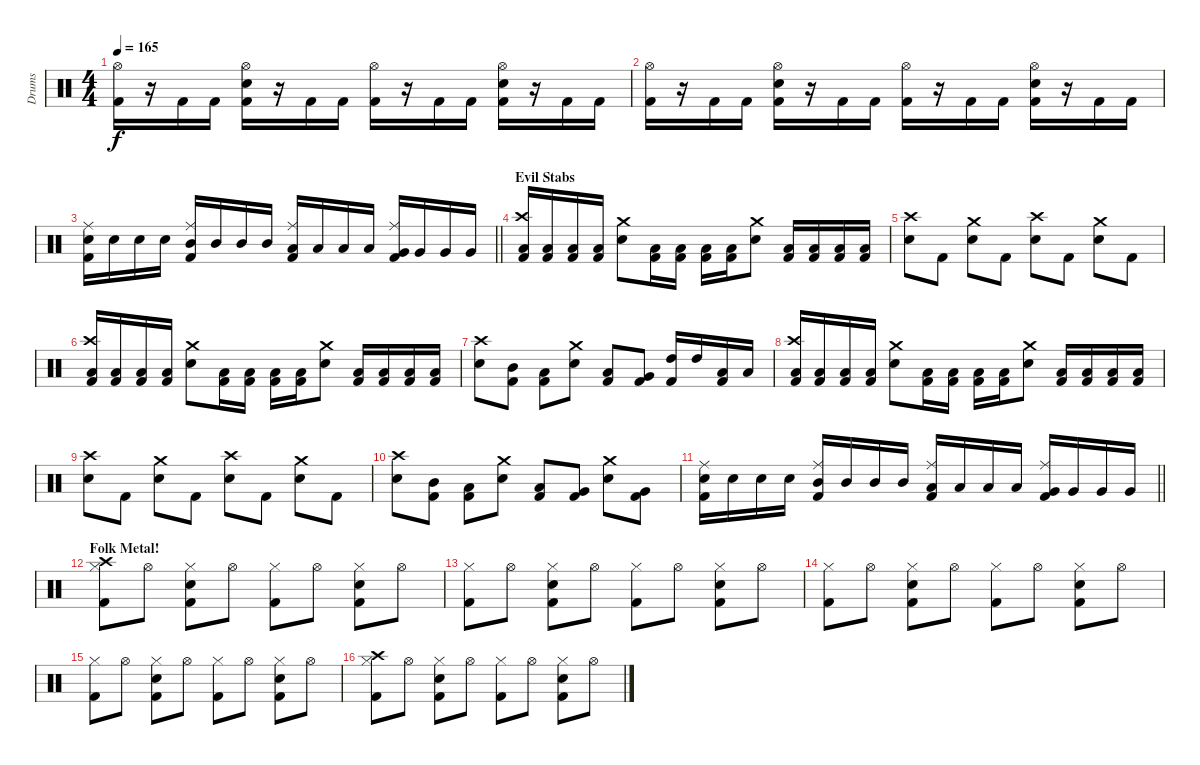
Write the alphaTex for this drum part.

\track ("Drums" "Drums") {instrument percussion}
\staff {score}
\articulation defaults
\ts (4 4)
\tempo 165
\clef neutral
\ks c
("Hi-Hat (open)" "Kick (hit) 2").16{dy f} r.16 "Kick (hit) 2".16 "Kick (hit) 2".16 ("Hi-Hat (open)" "Snare (hit) 2" "Kick (hit) 2").16 r.16 "Kick (hit) 2".16 "Kick (hit) 2".16 ("Hi-Hat (open)" "Kick (hit) 2").16 r.16 "Kick (hit) 2".16 "Kick (hit) 2".16 ("Hi-Hat (open)" "Snare (hit) 2" "Kick (hit) 2").16 r.16 "Kick (hit) 2".16 "Kick (hit) 2".16 |
("Hi-Hat (open)" "Kick (hit) 2").16 r.16 "Kick (hit) 2".16 "Kick (hit) 2".16 ("Hi-Hat (open)" "Snare (hit) 2" "Kick (hit) 2").16 r.16 "Kick (hit) 2".16 "Kick (hit) 2".16 ("Hi-Hat (open)" "Kick (hit) 2").16 r.16 "Kick (hit) 2".16 "Kick (hit) 2".16 ("Hi-Hat (open)" "Snare (hit) 2" "Kick (hit) 2").16 r.16 "Kick (hit) 2".16 "Kick (hit) 2".16 |
\barLineRight lightlight
("Ride (middle)" "Snare (hit) 2" "Kick (hit) 2").16 "Snare (hit) 2".16 "Snare (hit) 2".16 "Snare (hit) 2".16 ("Ride (middle)" "Mid Tom (hit)" "Kick (hit) 2").16 "Mid Tom (hit)".16 "Mid Tom (hit)".16 "Mid Tom (hit)".16 ("Ride (middle)" "Low Tom (hit)" "Kick (hit) 2").16 "Low Tom (hit)".16 "Low Tom (hit)".16 "Low Tom (hit)".16 ("Ride (middle)" "Very Low Tom (hit)" "Kick (hit) 2").16 "Very Low Tom (hit)".16 "Very Low Tom (hit)".16 "Very Low Tom (hit)".16 |
\section ("" "Evil Stabs")
("Crash high (hit)" "Low Floor Tom (hit)" "Kick (hit) 2").16 ("Low Floor Tom (hit)" "Kick (hit) 2").16 ("Low Floor Tom (hit)" "Kick (hit) 2").16 ("Low Floor Tom (hit)" "Kick (hit) 2").16 ("Crash medium (hit)" "Snare (hit) 2").8 ("Low Floor Tom (hit)" "Kick (hit) 2").16 ("Low Floor Tom (hit)" "Kick (hit) 2").16 ("Low Floor Tom (hit)" "Kick (hit) 2").16 ("Low Floor Tom (hit)" "Kick (hit) 2").16 ("Crash medium (hit)" "Snare (hit) 2").8 ("Low Floor Tom (hit)" "Kick (hit) 2").16 ("Low Floor Tom (hit)" "Kick (hit) 2").16 ("Low Floor Tom (hit)" "Kick (hit) 2").16 ("Low Floor Tom (hit)" "Kick (hit) 2").16 |
("Crash high (hit)" "Snare (hit) 2").8 "Kick (hit) 2".8 ("Crash medium (hit)" "Snare (hit) 2").8 "Kick (hit) 2".8 ("Crash high (hit)" "Snare (hit) 2").8 "Kick (hit) 2".8 ("Crash medium (hit)" "Snare (hit) 2").8 "Kick (hit) 2".8 |
("Crash high (hit)" "Low Floor Tom (hit)" "Kick (hit) 2").16 ("Low Floor Tom (hit)" "Kick (hit) 2").16 ("Low Floor Tom (hit)" "Kick (hit) 2").16 ("Low Floor Tom (hit)" "Kick (hit) 2").16 ("Crash medium (hit)" "Snare (hit) 2").8 ("Low Floor Tom (hit)" "Kick (hit) 2").16 ("Low Floor Tom (hit)" "Kick (hit) 2").16 ("Low Floor Tom (hit)" "Kick (hit) 2").16 ("Low Floor Tom (hit)" "Kick (hit) 2").16 ("Crash medium (hit)" "Snare (hit) 2").8 ("Low Floor Tom (hit)" "Kick (hit) 2").16 ("Low Floor Tom (hit)" "Kick (hit) 2").16 ("Low Floor Tom (hit)" "Kick (hit) 2").16 ("Low Floor Tom (hit)" "Kick (hit) 2").16 |
("Crash high (hit)" "Snare (hit) 2").8 ("Mid Tom (hit)" "Kick (hit) 2").8 ("Low Tom (hit)" "Kick (hit) 2").8 ("Crash medium (hit)" "Snare (hit) 2").8 ("Low Tom (hit)" "Kick (hit) 2").8 ("Very Low Tom (hit)" "Kick (hit) 2").8 ("High Tom (hit)" "Kick (hit) 2").16 "High Tom (hit)".16 ("Low Tom (hit)" "Kick (hit) 2").16 "Low Tom (hit)".16 |
("Crash high (hit)" "Low Floor Tom (hit)" "Kick (hit) 2").16 ("Low Floor Tom (hit)" "Kick (hit) 2").16 ("Low Floor Tom (hit)" "Kick (hit) 2").16 ("Low Floor Tom (hit)" "Kick (hit) 2").16 ("Crash medium (hit)" "Snare (hit) 2").8 ("Low Floor Tom (hit)" "Kick (hit) 2").16 ("Low Floor Tom (hit)" "Kick (hit) 2").16 ("Low Floor Tom (hit)" "Kick (hit) 2").16 ("Low Floor Tom (hit)" "Kick (hit) 2").16 ("Crash medium (hit)" "Snare (hit) 2").8 ("Low Floor Tom (hit)" "Kick (hit) 2").16 ("Low Floor Tom (hit)" "Kick (hit) 2").16 ("Low Floor Tom (hit)" "Kick (hit) 2").16 ("Low Floor Tom (hit)" "Kick (hit) 2").16 |
("Crash high (hit)" "Snare (hit) 2").8 "Kick (hit) 2".8 ("Crash medium (hit)" "Snare (hit) 2").8 "Kick (hit) 2".8 ("Crash high (hit)" "Snare (hit) 2").8 "Kick (hit) 2".8 ("Crash medium (hit)" "Snare (hit) 2").8 "Kick (hit) 2".8 |
("Crash high (hit)" "Snare (hit) 2").8 ("Mid Tom (hit)" "Kick (hit) 2").8 ("Low Tom (hit)" "Kick (hit) 2").8 ("Crash medium (hit)" "Snare (hit) 2").8 ("Low Tom (hit)" "Kick (hit) 2").8 ("Very Low Tom (hit)" "Kick (hit) 2").8 ("Crash medium (hit)" "Snare (hit) 2").8 ("Very Low Tom (hit)" "Kick (hit) 2").8 |
\barLineRight lightlight
("Ride (middle)" "Snare (hit) 2" "Kick (hit) 2").16 "Snare (hit) 2".16 "Snare (hit) 2".16 "Snare (hit) 2".16 ("Ride (middle)" "Mid Tom (hit)" "Kick (hit) 2").16 "Mid Tom (hit)".16 "Mid Tom (hit)".16 "Mid Tom (hit)".16 ("Ride (middle)" "Low Tom (hit)" "Kick (hit) 2").16 "Low Tom (hit)".16 "Low Tom (hit)".16 "Low Tom (hit)".16 ("Ride (middle)" "Very Low Tom (hit)" "Kick (hit) 2").16 "Very Low Tom (hit)".16 "Very Low Tom (hit)".16 "Very Low Tom (hit)".16 |
\section ("" "Folk Metal!")
("Crash high (hit)" "Hi-Hat (closed)" "Kick (hit) 2").8 "Hi-Hat (open)".8 ("Hi-Hat (closed)" "Snare (hit) 2" "Kick (hit) 2").8 "Hi-Hat (open)".8 ("Hi-Hat (closed)" "Kick (hit) 2").8 "Hi-Hat (open)".8 ("Hi-Hat (closed)" "Snare (hit) 2" "Kick (hit) 2").8 "Hi-Hat (open)".8 |
("Hi-Hat (closed)" "Kick (hit) 2").8 "Hi-Hat (open)".8 ("Hi-Hat (closed)" "Snare (hit) 2" "Kick (hit) 2").8 "Hi-Hat (open)".8 ("Hi-Hat (closed)" "Kick (hit) 2").8 "Hi-Hat (open)".8 ("Hi-Hat (closed)" "Snare (hit) 2" "Kick (hit) 2").8 "Hi-Hat (open)".8 |
("Hi-Hat (closed)" "Kick (hit) 2").8 "Hi-Hat (open)".8 ("Hi-Hat (closed)" "Snare (hit) 2" "Kick (hit) 2").8 "Hi-Hat (open)".8 ("Hi-Hat (closed)" "Kick (hit) 2").8 "Hi-Hat (open)".8 ("Hi-Hat (closed)" "Snare (hit) 2" "Kick (hit) 2").8 "Hi-Hat (open)".8 |
("Hi-Hat (closed)" "Kick (hit) 2").8 "Hi-Hat (open)".8 ("Hi-Hat (closed)" "Snare (hit) 2" "Kick (hit) 2").8 "Hi-Hat (open)".8 ("Hi-Hat (closed)" "Kick (hit) 2").8 "Hi-Hat (open)".8 ("Hi-Hat (closed)" "Snare (hit) 2" "Kick (hit) 2").8 "Hi-Hat (open)".8 |
("Crash high (hit)" "Hi-Hat (closed)" "Kick (hit) 2").8 "Hi-Hat (open)".8 ("Hi-Hat (closed)" "Snare (hit) 2" "Kick (hit) 2").8 "Hi-Hat (open)".8 ("Hi-Hat (closed)" "Kick (hit) 2").8 "Hi-Hat (open)".8 ("Hi-Hat (closed)" "Snare (hit) 2" "Kick (hit) 2").8 "Hi-Hat (open)".8
